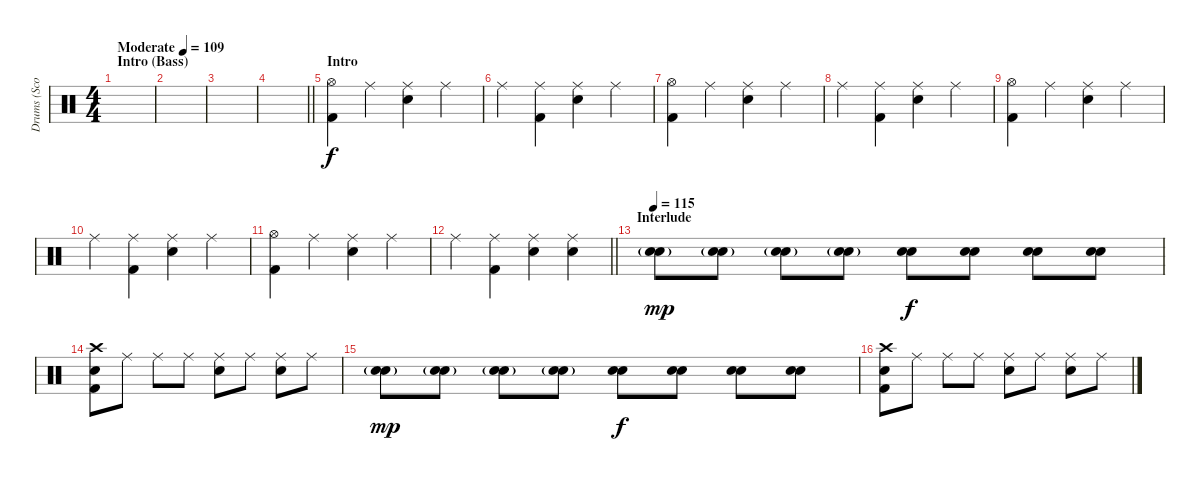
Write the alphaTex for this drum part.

\track ("Drums (Scott Raynor)" "Drums (Sco") {instrument percussion}
\staff {score}
\articulation defaults
\ts (4 4)
\section ("" "Intro (Bass)")
\tempo (109 "Moderate")
\clef neutral
\ks c
|
|
|
\barLineRight lightlight
|
\section ("" "Intro")
("Hi-Hat (open)" "Kick (hit) 2").4 "Ride (middle)".4 ("Ride (middle)" "Snare (hit) 2").4 "Ride (middle)".4 |
"Ride (middle)".4 ("Ride (middle)" "Kick (hit) 2").4 ("Ride (middle)" "Snare (hit) 2").4 "Ride (middle)".4 |
("Hi-Hat (open)" "Kick (hit) 2").4 "Ride (middle)".4 ("Ride (middle)" "Snare (hit) 2").4 "Ride (middle)".4 |
"Ride (middle)".4 ("Ride (middle)" "Kick (hit) 2").4 ("Ride (middle)" "Snare (hit) 2").4 "Ride (middle)".4 |
("Hi-Hat (open)" "Kick (hit) 2").4 "Ride (middle)".4 ("Ride (middle)" "Snare (hit) 2").4 "Ride (middle)".4 |
"Ride (middle)".4 ("Ride (middle)" "Kick (hit) 2").4 ("Ride (middle)" "Snare (hit) 2").4 "Ride (middle)".4 |
("Hi-Hat (open)" "Kick (hit) 2").4 "Ride (middle)".4 ("Ride (middle)" "Snare (hit) 2").4 "Ride (middle)".4 |
\barLineRight lightlight "Ride (middle)".4
("Ride (middle)" "Kick (hit) 2").4 ("Ride (middle)" "Snare (hit) 2").4 ("Ride (middle)" "Snare (hit) 2").4 |
\section ("" "Interlude")
\tempo 115
("Snare (hit) 2"{g} "Snare (hit) 2"{g}).8{dy mp} ("Snare (hit) 2"{g} "Snare (hit) 2"{g}).8 ("Snare (hit) 2" "Snare (hit) 2"{g}).8 ("Snare (hit) 2" "Snare (hit) 2"{g}).8 ("Snare (hit) 2" "Snare (hit) 2").8{dy f} ("Snare (hit) 2" "Snare (hit) 2").8 ("Snare (hit) 2" "Snare (hit) 2").8 ("Snare (hit) 2" "Snare (hit) 2").8 |
("Crash high (hit)" "Electric Snare (hit)" "Kick (hit) 2").8 "Ride (middle)".8 "Ride (middle)".8 "Ride (middle)".8 ("Ride (middle)" "Snare (hit) 2").8 "Ride (middle)".8 ("Ride (middle)" "Snare (hit) 2").8 "Ride (middle)".8 |
("Snare (hit) 2"{g} "Snare (hit) 2"{g}).8{dy mp} ("Snare (hit) 2"{g} "Snare (hit) 2"{g}).8 ("Snare (hit) 2" "Snare (hit) 2"{g}).8 ("Snare (hit) 2" "Snare (hit) 2"{g}).8 ("Snare (hit) 2" "Snare (hit) 2").8{dy f} ("Snare (hit) 2" "Snare (hit) 2").8 ("Snare (hit) 2" "Snare (hit) 2").8 ("Snare (hit) 2" "Snare (hit) 2").8 |
("Crash high (hit)" "Snare (hit) 2" "Kick (hit) 2").8 "Ride (middle)".8 "Ride (middle)".8 "Ride (middle)".8 ("Ride (middle)" "Snare (hit) 2").8 "Ride (middle)".8 ("Ride (middle)" "Snare (hit) 2").8 "Ride (middle)".8
